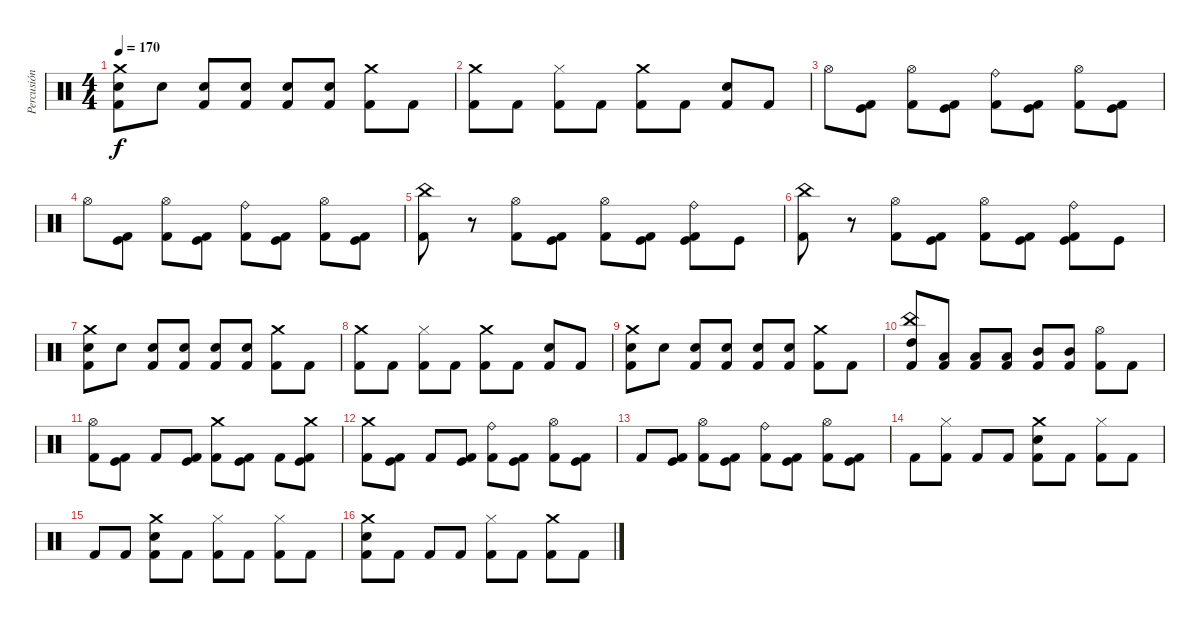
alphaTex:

\track ("Percusión" "Percusión") {instrument percussion}
\staff {score}
\articulation defaults
\ts (4 4)
\tempo 170
\clef neutral
\ks c
("Crash medium (hit)" "Snare (hit) 2" "Kick (hit) 2").8{dy f} "Snare (hit) 2".8 ("Snare (hit) 2" "Kick (hit) 2").8 ("Snare (hit) 2" "Kick (hit) 2").8 ("Snare (hit) 2" "Kick (hit) 2").8 ("Snare (hit) 2" "Kick (hit) 2").8 ("Crash medium (hit)" "Kick (hit) 2").8 "Kick (hit) 2".8 |
("Crash medium (hit)" "Kick (hit) 2").8 "Kick (hit) 2".8 ("Hi-Hat (closed)" "Kick (hit) 2").8 "Kick (hit) 2".8 ("Crash medium (hit)" "Kick (hit) 2").8 "Kick (hit) 2".8 ("Snare (hit) 2" "Kick (hit) 2").8 "Kick (hit) 2".8 |
"Hi-Hat (open)".8 ("Kick (hit)" "Kick (hit) 2").8 ("Hi-Hat (open)" "Kick (hit) 2").8 ("Kick (hit)" "Kick (hit) 2").8 ("Ride (bell)" "Kick (hit) 2").8 ("Kick (hit)" "Kick (hit) 2").8 ("Hi-Hat (open)" "Kick (hit) 2").8 ("Kick (hit)" "Kick (hit) 2").8 |
"Hi-Hat (open)".8 ("Kick (hit)" "Kick (hit) 2").8 ("Hi-Hat (open)" "Kick (hit) 2").8 ("Kick (hit)" "Kick (hit) 2").8 ("Ride (bell)" "Kick (hit) 2").8 ("Kick (hit)" "Kick (hit) 2").8 ("Hi-Hat (open)" "Kick (hit) 2").8 ("Kick (hit)" "Kick (hit) 2").8 |
("China (hit)" "Kick (hit) 2").8 r.8 ("Hi-Hat (open)" "Kick (hit) 2").8 ("Kick (hit)" "Kick (hit) 2").8 ("Hi-Hat (open)" "Kick (hit) 2").8 ("Kick (hit)" "Kick (hit) 2").8 ("Ride (bell)" "Kick (hit)" "Kick (hit) 2").8 "Kick (hit)".8 |
("China (hit)" "Kick (hit) 2").8 r.8 ("Hi-Hat (open)" "Kick (hit) 2").8 ("Kick (hit)" "Kick (hit) 2").8 ("Hi-Hat (open)" "Kick (hit) 2").8 ("Kick (hit)" "Kick (hit) 2").8 ("Ride (bell)" "Kick (hit)" "Kick (hit) 2").8 "Kick (hit)".8 |
("Crash medium (hit)" "Snare (hit) 2" "Kick (hit) 2").8 "Snare (hit) 2".8 ("Snare (hit) 2" "Kick (hit) 2").8 ("Snare (hit) 2" "Kick (hit) 2").8 ("Snare (hit) 2" "Kick (hit) 2").8 ("Snare (hit) 2" "Kick (hit) 2").8 ("Crash medium (hit)" "Kick (hit) 2").8 "Kick (hit) 2".8 |
("Crash medium (hit)" "Kick (hit) 2").8 "Kick (hit) 2".8 ("Hi-Hat (closed)" "Kick (hit) 2").8 "Kick (hit) 2".8 ("Crash medium (hit)" "Kick (hit) 2").8 "Kick (hit) 2".8 ("Snare (hit) 2" "Kick (hit) 2").8 "Kick (hit) 2".8 |
("Crash medium (hit)" "Snare (hit) 2" "Kick (hit) 2").8 "Snare (hit) 2".8 ("Snare (hit) 2" "Kick (hit) 2").8 ("Snare (hit) 2" "Kick (hit) 2").8 ("Snare (hit) 2" "Kick (hit) 2").8 ("Snare (hit) 2" "Kick (hit) 2").8 ("Crash medium (hit)" "Kick (hit) 2").8 "Kick (hit) 2".8 |
("China (hit)" "High Tom (hit)" "Kick (hit) 2").8 ("Low Tom (hit)" "Kick (hit) 2").8 ("Low Tom (hit)" "Kick (hit) 2").8 ("Low Tom (hit)" "Kick (hit) 2").8 ("Mid Tom (hit)" "Kick (hit) 2").8 ("Mid Tom (hit)" "Kick (hit) 2").8 ("Hi-Hat (open)" "Kick (hit) 2").8 "Kick (hit) 2".8 |
("Hi-Hat (open)" "Kick (hit) 2").8 ("Kick (hit)" "Kick (hit) 2").8 "Kick (hit) 2".8 ("Kick (hit)" "Kick (hit) 2").8 ("Crash medium (hit)" "Kick (hit) 2").8 ("Kick (hit)" "Kick (hit) 2").8 "Kick (hit) 2".8 ("Crash medium (hit)" "Kick (hit)" "Kick (hit) 2").8 |
("Crash medium (hit)" "Kick (hit) 2").8 ("Kick (hit)" "Kick (hit) 2").8 "Kick (hit) 2".8 ("Kick (hit)" "Kick (hit) 2").8 ("Ride (bell)" "Kick (hit) 2").8 ("Kick (hit)" "Kick (hit) 2").8 ("Hi-Hat (open)" "Kick (hit) 2").8 ("Kick (hit)" "Kick (hit) 2").8 |
"Kick (hit) 2".8 ("Kick (hit)" "Kick (hit) 2").8 ("Hi-Hat (open)" "Kick (hit) 2").8 ("Kick (hit)" "Kick (hit) 2").8 ("Ride (bell)" "Kick (hit) 2").8 ("Kick (hit)" "Kick (hit) 2").8 ("Hi-Hat (open)" "Kick (hit) 2").8 ("Kick (hit)" "Kick (hit) 2").8 |
"Kick (hit) 2".8 ("Hi-Hat (closed)" "Kick (hit) 2").8 "Kick (hit) 2".8 "Kick (hit) 2".8 ("Snare (hit) 2" "Crash medium (hit)" "Kick (hit) 2").8 "Kick (hit) 2".8 ("Hi-Hat (closed)" "Kick (hit) 2").8 "Kick (hit) 2".8 |
"Kick (hit) 2".8 "Kick (hit) 2".8 ("Snare (hit) 2" "Crash medium (hit)" "Kick (hit) 2").8 "Kick (hit) 2".8 ("Hi-Hat (closed)" "Kick (hit) 2").8 "Kick (hit) 2".8 ("Hi-Hat (closed)" "Kick (hit) 2").8 "Kick (hit) 2".8 |
("Snare (hit) 2" "Crash medium (hit)" "Kick (hit) 2").8 "Kick (hit) 2".8 "Kick (hit) 2".8 "Kick (hit) 2".8 ("Hi-Hat (closed)" "Kick (hit) 2").8 "Kick (hit) 2".8 ("Crash medium (hit)" "Kick (hit) 2").8 "Kick (hit) 2".8
